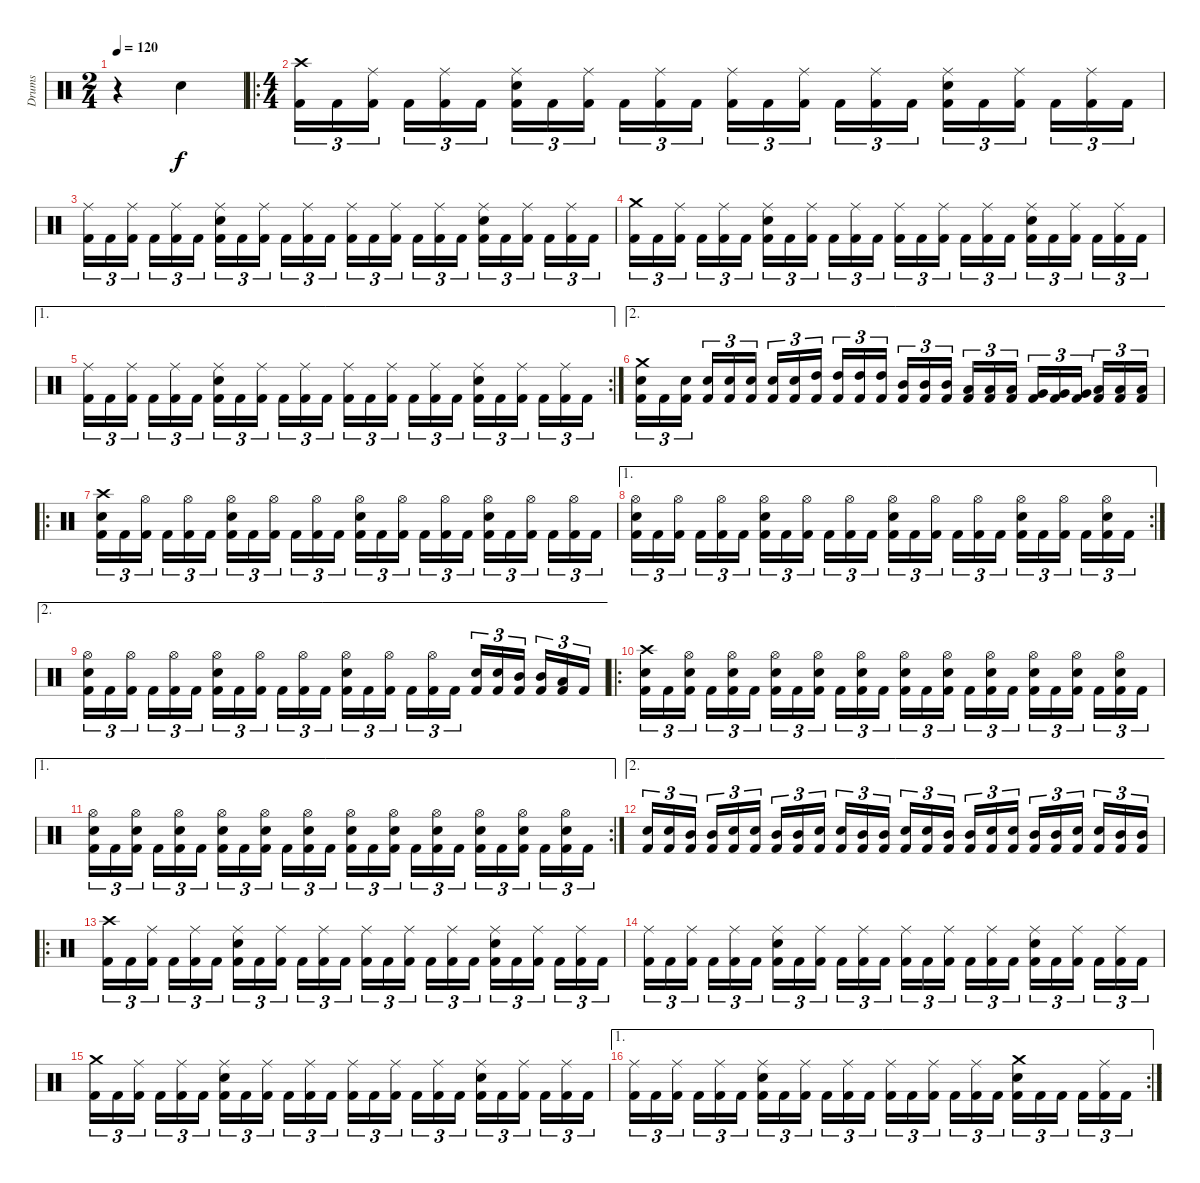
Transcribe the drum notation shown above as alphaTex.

\track ("Drums" "Drums") {instrument percussion}
\staff {score}
\articulation defaults
\ts (2 4)
\tempo 120
\clef neutral
\ks c
r.4{dy f} "Electric Snare (hit)".4 |
\ro
\ts (4 4)
("Crash high (hit)" "Kick (hit) 2").16{tu (3 2)} "Kick (hit) 2".16{tu (3 2)} ("Ride (middle)" "Kick (hit) 2").16{tu (3 2)} "Kick (hit) 2".16{tu (3 2)} ("Ride (middle)" "Kick (hit) 2").16{tu (3 2)} "Kick (hit) 2".16{tu (3 2)} ("Ride (middle)" "Electric Snare (hit)" "Kick (hit) 2").16{tu (3 2)} "Kick (hit) 2".16{tu (3 2)} ("Ride (middle)" "Kick (hit) 2").16{tu (3 2)} "Kick (hit) 2".16{tu (3 2)} ("Ride (middle)" "Kick (hit) 2").16{tu (3 2)} "Kick (hit) 2".16{tu (3 2)} ("Ride (middle)" "Kick (hit) 2").16{tu (3 2)} "Kick (hit) 2".16{tu (3 2)} ("Ride (middle)" "Kick (hit) 2").16{tu (3 2)} "Kick (hit) 2".16{tu (3 2)} ("Ride (middle)" "Kick (hit) 2").16{tu (3 2)} "Kick (hit) 2".16{tu (3 2)} ("Ride (middle)" "Electric Snare (hit)" "Kick (hit) 2").16{tu (3 2)} "Kick (hit) 2".16{tu (3 2)} ("Ride (middle)" "Kick (hit) 2").16{tu (3 2)} "Kick (hit) 2".16{tu (3 2)} ("Ride (middle)" "Kick (hit) 2").16{tu (3 2)} "Kick (hit) 2".16{tu (3 2)} |
("Ride (middle)" "Kick (hit) 2").16{tu (3 2)} "Kick (hit) 2".16{tu (3 2)} ("Ride (middle)" "Kick (hit) 2").16{tu (3 2)} "Kick (hit) 2".16{tu (3 2)} ("Ride (middle)" "Kick (hit) 2").16{tu (3 2)} "Kick (hit) 2".16{tu (3 2)} ("Ride (middle)" "Electric Snare (hit)" "Kick (hit) 2").16{tu (3 2)} "Kick (hit) 2".16{tu (3 2)} ("Ride (middle)" "Kick (hit) 2").16{tu (3 2)} "Kick (hit) 2".16{tu (3 2)} ("Ride (middle)" "Kick (hit) 2").16{tu (3 2)} "Kick (hit) 2".16{tu (3 2)} ("Ride (middle)" "Kick (hit) 2").16{tu (3 2)} "Kick (hit) 2".16{tu (3 2)} ("Ride (middle)" "Kick (hit) 2").16{tu (3 2)} "Kick (hit) 2".16{tu (3 2)} ("Ride (middle)" "Kick (hit) 2").16{tu (3 2)} "Kick (hit) 2".16{tu (3 2)} ("Ride (middle)" "Electric Snare (hit)" "Kick (hit) 2").16{tu (3 2)} "Kick (hit) 2".16{tu (3 2)} ("Ride (middle)" "Kick (hit) 2").16{tu (3 2)} "Kick (hit) 2".16{tu (3 2)} ("Ride (middle)" "Kick (hit) 2").16{tu (3 2)} "Kick (hit) 2".16{tu (3 2)} |
("Crash medium (hit)" "Kick (hit) 2").16{tu (3 2)} "Kick (hit) 2".16{tu (3 2)} ("Ride (middle)" "Kick (hit) 2").16{tu (3 2)} "Kick (hit) 2".16{tu (3 2)} ("Ride (middle)" "Kick (hit) 2").16{tu (3 2)} "Kick (hit) 2".16{tu (3 2)} ("Ride (middle)" "Electric Snare (hit)" "Kick (hit) 2").16{tu (3 2)} "Kick (hit) 2".16{tu (3 2)} ("Ride (middle)" "Kick (hit) 2").16{tu (3 2)} "Kick (hit) 2".16{tu (3 2)} ("Ride (middle)" "Kick (hit) 2").16{tu (3 2)} "Kick (hit) 2".16{tu (3 2)} ("Ride (middle)" "Kick (hit) 2").16{tu (3 2)} "Kick (hit) 2".16{tu (3 2)} ("Ride (middle)" "Kick (hit) 2").16{tu (3 2)} "Kick (hit) 2".16{tu (3 2)} ("Ride (middle)" "Kick (hit) 2").16{tu (3 2)} "Kick (hit) 2".16{tu (3 2)} ("Ride (middle)" "Electric Snare (hit)" "Kick (hit) 2").16{tu (3 2)} "Kick (hit) 2".16{tu (3 2)} ("Ride (middle)" "Kick (hit) 2").16{tu (3 2)} "Kick (hit) 2".16{tu (3 2)} ("Ride (middle)" "Kick (hit) 2").16{tu (3 2)} "Kick (hit) 2".16{tu (3 2)} |
\ae 1
\rc 2
("Ride (middle)" "Kick (hit) 2").16{tu (3 2)} "Kick (hit) 2".16{tu (3 2)} ("Ride (middle)" "Kick (hit) 2").16{tu (3 2)} "Kick (hit) 2".16{tu (3 2)} ("Ride (middle)" "Kick (hit) 2").16{tu (3 2)} "Kick (hit) 2".16{tu (3 2)} ("Ride (middle)" "Electric Snare (hit)" "Kick (hit) 2").16{tu (3 2)} "Kick (hit) 2".16{tu (3 2)} ("Ride (middle)" "Kick (hit) 2").16{tu (3 2)} "Kick (hit) 2".16{tu (3 2)} ("Ride (middle)" "Kick (hit) 2").16{tu (3 2)} "Kick (hit) 2".16{tu (3 2)} ("Ride (middle)" "Kick (hit) 2").16{tu (3 2)} "Kick (hit) 2".16{tu (3 2)} ("Ride (middle)" "Kick (hit) 2").16{tu (3 2)} "Kick (hit) 2".16{tu (3 2)} ("Ride (middle)" "Kick (hit) 2").16{tu (3 2)} "Kick (hit) 2".16{tu (3 2)} ("Ride (middle)" "Electric Snare (hit)" "Kick (hit) 2").16{tu (3 2)} "Kick (hit) 2".16{tu (3 2)} ("Ride (middle)" "Kick (hit) 2").16{tu (3 2)} "Kick (hit) 2".16{tu (3 2)} ("Ride (middle)" "Kick (hit) 2").16{tu (3 2)} "Kick (hit) 2".16{tu (3 2)} |
\ae 2
("Crash medium (hit)" "Electric Snare (hit)" "Kick (hit) 2").16{tu (3 2)} "Kick (hit) 2".16{tu (3 2)} ("Electric Snare (hit)" "Kick (hit) 2").16{tu (3 2)} ("Electric Snare (hit)" "Kick (hit) 2").16{tu (3 2)} ("Electric Snare (hit)" "Kick (hit) 2").16{tu (3 2)} ("Electric Snare (hit)" "Kick (hit) 2").16{tu (3 2)} ("Electric Snare (hit)" "Kick (hit) 2").16{tu (3 2)} ("Electric Snare (hit)" "Kick (hit) 2").16{tu (3 2)} ("High Tom (hit)" "Kick (hit) 2").16{tu (3 2)} ("High Tom (hit)" "Kick (hit) 2").16{tu (3 2)} ("High Tom (hit)" "Kick (hit) 2").16{tu (3 2)} ("High Tom (hit)" "Kick (hit) 2").16{tu (3 2)} ("Mid Tom (hit)" "Kick (hit) 2").16{tu (3 2)} ("Mid Tom (hit)" "Kick (hit) 2").16{tu (3 2)} ("Mid Tom (hit)" "Kick (hit) 2").16{tu (3 2)} ("Low Tom (hit)" "Kick (hit) 2").16{tu (3 2)} ("Low Tom (hit)" "Kick (hit) 2").16{tu (3 2)} ("Low Tom (hit)" "Kick (hit) 2").16{tu (3 2)} ("Very Low Tom (hit)" "Kick (hit) 2").16{tu (3 2)} ("Very Low Tom (hit)" "Kick (hit) 2").16{tu (3 2)} ("Very Low Tom (hit)" "Kick (hit) 2").16{tu (3 2)} ("Low Floor Tom (hit)" "Kick (hit) 2").16{tu (3 2)} ("Low Floor Tom (hit)" "Kick (hit) 2").16{tu (3 2)} ("Low Floor Tom (hit)" "Kick (hit) 2").16{tu (3 2)} |
\ro
("Crash high (hit)" "Electric Snare (hit)" "Kick (hit) 2").16{tu (3 2)} "Kick (hit) 2".16{tu (3 2)} ("Hi-Hat (open)" "Kick (hit) 2").16{tu (3 2)} "Kick (hit) 2".16{tu (3 2)} ("Hi-Hat (open)" "Kick (hit) 2").16{tu (3 2)} "Kick (hit) 2".16{tu (3 2)} ("Hi-Hat (open)" "Electric Snare (hit)" "Kick (hit) 2").16{tu (3 2)} "Kick (hit) 2".16{tu (3 2)} ("Hi-Hat (open)" "Kick (hit) 2").16{tu (3 2)} "Kick (hit) 2".16{tu (3 2)} ("Hi-Hat (open)" "Kick (hit) 2").16{tu (3 2)} "Kick (hit) 2".16{tu (3 2)} ("Hi-Hat (open)" "Electric Snare (hit)" "Kick (hit) 2").16{tu (3 2)} "Kick (hit) 2".16{tu (3 2)} ("Hi-Hat (open)" "Kick (hit) 2").16{tu (3 2)} "Kick (hit) 2".16{tu (3 2)} ("Hi-Hat (open)" "Kick (hit) 2").16{tu (3 2)} "Kick (hit) 2".16{tu (3 2)} ("Hi-Hat (open)" "Electric Snare (hit)" "Kick (hit) 2").16{tu (3 2)} "Kick (hit) 2".16{tu (3 2)} ("Hi-Hat (open)" "Kick (hit) 2").16{tu (3 2)} "Kick (hit) 2".16{tu (3 2)} ("Hi-Hat (open)" "Kick (hit) 2").16{tu (3 2)} "Kick (hit) 2".16{tu (3 2)} |
\ae 1
\rc 2
("Hi-Hat (open)" "Electric Snare (hit)" "Kick (hit) 2").16{tu (3 2)} "Kick (hit) 2".16{tu (3 2)} ("Hi-Hat (open)" "Kick (hit) 2").16{tu (3 2)} "Kick (hit) 2".16{tu (3 2)} ("Hi-Hat (open)" "Kick (hit) 2").16{tu (3 2)} "Kick (hit) 2".16{tu (3 2)} ("Hi-Hat (open)" "Electric Snare (hit)" "Kick (hit) 2").16{tu (3 2)} "Kick (hit) 2".16{tu (3 2)} ("Hi-Hat (open)" "Kick (hit) 2").16{tu (3 2)} "Kick (hit) 2".16{tu (3 2)} ("Hi-Hat (open)" "Kick (hit) 2").16{tu (3 2)} "Kick (hit) 2".16{tu (3 2)} ("Hi-Hat (open)" "Electric Snare (hit)" "Kick (hit) 2").16{tu (3 2)} "Kick (hit) 2".16{tu (3 2)} ("Hi-Hat (open)" "Kick (hit) 2").16{tu (3 2)} "Kick (hit) 2".16{tu (3 2)} ("Hi-Hat (open)" "Kick (hit) 2").16{tu (3 2)} "Kick (hit) 2".16{tu (3 2)} ("Hi-Hat (open)" "Electric Snare (hit)" "Kick (hit) 2").16{tu (3 2)} "Kick (hit) 2".16{tu (3 2)} ("Hi-Hat (open)" "Kick (hit) 2").16{tu (3 2)} "Kick (hit) 2".16{tu (3 2)} ("Hi-Hat (open)" "Electric Snare (hit)" "Kick (hit) 2").16{tu (3 2)} "Kick (hit) 2".16{tu (3 2)} |
\ae 2
("Hi-Hat (open)" "Electric Snare (hit)" "Kick (hit) 2").16{tu (3 2)} "Kick (hit) 2".16{tu (3 2)} ("Hi-Hat (open)" "Kick (hit) 2").16{tu (3 2)} "Kick (hit) 2".16{tu (3 2)} ("Hi-Hat (open)" "Kick (hit) 2").16{tu (3 2)} "Kick (hit) 2".16{tu (3 2)} ("Hi-Hat (open)" "Electric Snare (hit)" "Kick (hit) 2").16{tu (3 2)} "Kick (hit) 2".16{tu (3 2)} ("Hi-Hat (open)" "Kick (hit) 2").16{tu (3 2)} "Kick (hit) 2".16{tu (3 2)} ("Hi-Hat (open)" "Kick (hit) 2").16{tu (3 2)} "Kick (hit) 2".16{tu (3 2)} ("Hi-Hat (open)" "Electric Snare (hit)" "Kick (hit) 2").16{tu (3 2)} "Kick (hit) 2".16{tu (3 2)} ("Hi-Hat (open)" "Kick (hit) 2").16{tu (3 2)} "Kick (hit) 2".16{tu (3 2)} ("Hi-Hat (open)" "Kick (hit) 2").16{tu (3 2)} "Kick (hit) 2".16{tu (3 2)} ("Electric Snare (hit)" "Kick (hit) 2").16{tu (3 2)} ("Electric Snare (hit)" "Kick (hit) 2").16{tu (3 2)} ("Mid Tom (hit)" "Kick (hit) 2").16{tu (3 2)} ("Mid Tom (hit)" "Kick (hit) 2").16{tu (3 2)} ("Low Tom (hit)" "Kick (hit) 2").16{tu (3 2)} "Kick (hit) 2".16{tu (3 2)} |
\ro
("Crash high (hit)" "Electric Snare (hit)" "Kick (hit) 2").16{tu (3 2)} "Kick (hit) 2".16{tu (3 2)} ("Hi-Hat (open)" "Electric Snare (hit)" "Kick (hit) 2").16{tu (3 2)} "Kick (hit) 2".16{tu (3 2)} ("Hi-Hat (open)" "Electric Snare (hit)" "Kick (hit) 2").16{tu (3 2)} "Kick (hit) 2".16{tu (3 2)} ("Hi-Hat (open)" "Electric Snare (hit)" "Kick (hit) 2").16{tu (3 2)} "Kick (hit) 2".16{tu (3 2)} ("Hi-Hat (open)" "Electric Snare (hit)" "Kick (hit) 2").16{tu (3 2)} "Kick (hit) 2".16{tu (3 2)} ("Hi-Hat (open)" "Electric Snare (hit)" "Kick (hit) 2").16{tu (3 2)} "Kick (hit) 2".16{tu (3 2)} ("Hi-Hat (open)" "Electric Snare (hit)" "Kick (hit) 2").16{tu (3 2)} "Kick (hit) 2".16{tu (3 2)} ("Hi-Hat (open)" "Electric Snare (hit)" "Kick (hit) 2").16{tu (3 2)} "Kick (hit) 2".16{tu (3 2)} ("Hi-Hat (open)" "Electric Snare (hit)" "Kick (hit) 2").16{tu (3 2)} "Kick (hit) 2".16{tu (3 2)} ("Hi-Hat (open)" "Electric Snare (hit)" "Kick (hit) 2").16{tu (3 2)} "Kick (hit) 2".16{tu (3 2)} ("Hi-Hat (open)" "Electric Snare (hit)" "Kick (hit) 2").16{tu (3 2)} "Kick (hit) 2".16{tu (3 2)} ("Hi-Hat (open)" "Electric Snare (hit)" "Kick (hit) 2").16{tu (3 2)} "Kick (hit) 2".16{tu (3 2)} |
\ae 1
\rc 2
("Hi-Hat (open)" "Electric Snare (hit)" "Kick (hit) 2").16{tu (3 2)} "Kick (hit) 2".16{tu (3 2)} ("Hi-Hat (open)" "Electric Snare (hit)" "Kick (hit) 2").16{tu (3 2)} "Kick (hit) 2".16{tu (3 2)} ("Hi-Hat (open)" "Electric Snare (hit)" "Kick (hit) 2").16{tu (3 2)} "Kick (hit) 2".16{tu (3 2)} ("Hi-Hat (open)" "Electric Snare (hit)" "Kick (hit) 2").16{tu (3 2)} "Kick (hit) 2".16{tu (3 2)} ("Hi-Hat (open)" "Electric Snare (hit)" "Kick (hit) 2").16{tu (3 2)} "Kick (hit) 2".16{tu (3 2)} ("Hi-Hat (open)" "Electric Snare (hit)" "Kick (hit) 2").16{tu (3 2)} "Kick (hit) 2".16{tu (3 2)} ("Hi-Hat (open)" "Electric Snare (hit)" "Kick (hit) 2").16{tu (3 2)} "Kick (hit) 2".16{tu (3 2)} ("Hi-Hat (open)" "Electric Snare (hit)" "Kick (hit) 2").16{tu (3 2)} "Kick (hit) 2".16{tu (3 2)} ("Hi-Hat (open)" "Electric Snare (hit)" "Kick (hit) 2").16{tu (3 2)} "Kick (hit) 2".16{tu (3 2)} ("Hi-Hat (open)" "Electric Snare (hit)" "Kick (hit) 2").16{tu (3 2)} "Kick (hit) 2".16{tu (3 2)} ("Hi-Hat (open)" "Electric Snare (hit)" "Kick (hit) 2").16{tu (3 2)} "Kick (hit) 2".16{tu (3 2)} ("Hi-Hat (open)" "Electric Snare (hit)" "Kick (hit) 2").16{tu (3 2)} "Kick (hit) 2".16{tu (3 2)} |
\ae 2
("Electric Snare (hit)" "Kick (hit) 2").16{tu (3 2)} ("Electric Snare (hit)" "Kick (hit) 2").16{tu (3 2)} ("Mid Tom (hit)" "Kick (hit) 2").16{tu (3 2)} ("Mid Tom (hit)" "Kick (hit) 2").16{tu (3 2)} ("Electric Snare (hit)" "Kick (hit) 2").16{tu (3 2)} ("Electric Snare (hit)" "Kick (hit) 2").16{tu (3 2)} ("Mid Tom (hit)" "Kick (hit) 2").16{tu (3 2)} ("Mid Tom (hit)" "Kick (hit) 2").16{tu (3 2)} ("Electric Snare (hit)" "Kick (hit) 2").16{tu (3 2)} ("Electric Snare (hit)" "Kick (hit) 2").16{tu (3 2)} ("Mid Tom (hit)" "Kick (hit) 2").16{tu (3 2)} ("Mid Tom (hit)" "Kick (hit) 2").16{tu (3 2)} ("Electric Snare (hit)" "Kick (hit) 2").16{tu (3 2)} ("Electric Snare (hit)" "Kick (hit) 2").16{tu (3 2)} ("Mid Tom (hit)" "Kick (hit) 2").16{tu (3 2)} ("Mid Tom (hit)" "Kick (hit) 2").16{tu (3 2)} ("Electric Snare (hit)" "Kick (hit) 2").16{tu (3 2)} ("Electric Snare (hit)" "Kick (hit) 2").16{tu (3 2)} ("Mid Tom (hit)" "Kick (hit) 2").16{tu (3 2)} ("Mid Tom (hit)" "Kick (hit) 2").16{tu (3 2)} ("Electric Snare (hit)" "Kick (hit) 2").16{tu (3 2)} ("Electric Snare (hit)" "Kick (hit) 2").16{tu (3 2)} ("Mid Tom (hit)" "Kick (hit) 2").16{tu (3 2)} ("Mid Tom (hit)" "Kick (hit) 2").16{tu (3 2)} |
\ro
("Crash high (hit)" "Kick (hit) 2").16{tu (3 2)} "Kick (hit) 2".16{tu (3 2)} ("Ride (middle)" "Kick (hit) 2").16{tu (3 2)} "Kick (hit) 2".16{tu (3 2)} ("Ride (middle)" "Kick (hit) 2").16{tu (3 2)} "Kick (hit) 2".16{tu (3 2)} ("Ride (middle)" "Electric Snare (hit)" "Kick (hit) 2").16{tu (3 2)} "Kick (hit) 2".16{tu (3 2)} ("Ride (middle)" "Kick (hit) 2").16{tu (3 2)} "Kick (hit) 2".16{tu (3 2)} ("Ride (middle)" "Kick (hit) 2").16{tu (3 2)} "Kick (hit) 2".16{tu (3 2)} ("Ride (middle)" "Kick (hit) 2").16{tu (3 2)} "Kick (hit) 2".16{tu (3 2)} ("Ride (middle)" "Kick (hit) 2").16{tu (3 2)} "Kick (hit) 2".16{tu (3 2)} ("Ride (middle)" "Kick (hit) 2").16{tu (3 2)} "Kick (hit) 2".16{tu (3 2)} ("Ride (middle)" "Electric Snare (hit)" "Kick (hit) 2").16{tu (3 2)} "Kick (hit) 2".16{tu (3 2)} ("Ride (middle)" "Kick (hit) 2").16{tu (3 2)} "Kick (hit) 2".16{tu (3 2)} ("Ride (middle)" "Kick (hit) 2").16{tu (3 2)} "Kick (hit) 2".16{tu (3 2)} |
("Ride (middle)" "Kick (hit) 2").16{tu (3 2)} "Kick (hit) 2".16{tu (3 2)} ("Ride (middle)" "Kick (hit) 2").16{tu (3 2)} "Kick (hit) 2".16{tu (3 2)} ("Ride (middle)" "Kick (hit) 2").16{tu (3 2)} "Kick (hit) 2".16{tu (3 2)} ("Ride (middle)" "Electric Snare (hit)" "Kick (hit) 2").16{tu (3 2)} "Kick (hit) 2".16{tu (3 2)} ("Ride (middle)" "Kick (hit) 2").16{tu (3 2)} "Kick (hit) 2".16{tu (3 2)} ("Ride (middle)" "Kick (hit) 2").16{tu (3 2)} "Kick (hit) 2".16{tu (3 2)} ("Ride (middle)" "Kick (hit) 2").16{tu (3 2)} "Kick (hit) 2".16{tu (3 2)} ("Ride (middle)" "Kick (hit) 2").16{tu (3 2)} "Kick (hit) 2".16{tu (3 2)} ("Ride (middle)" "Kick (hit) 2").16{tu (3 2)} "Kick (hit) 2".16{tu (3 2)} ("Ride (middle)" "Electric Snare (hit)" "Kick (hit) 2").16{tu (3 2)} "Kick (hit) 2".16{tu (3 2)} ("Ride (middle)" "Kick (hit) 2").16{tu (3 2)} "Kick (hit) 2".16{tu (3 2)} ("Ride (middle)" "Kick (hit) 2").16{tu (3 2)} "Kick (hit) 2".16{tu (3 2)} |
("Crash medium (hit)" "Kick (hit) 2").16{tu (3 2)} "Kick (hit) 2".16{tu (3 2)} ("Ride (middle)" "Kick (hit) 2").16{tu (3 2)} "Kick (hit) 2".16{tu (3 2)} ("Ride (middle)" "Kick (hit) 2").16{tu (3 2)} "Kick (hit) 2".16{tu (3 2)} ("Ride (middle)" "Electric Snare (hit)" "Kick (hit) 2").16{tu (3 2)} "Kick (hit) 2".16{tu (3 2)} ("Ride (middle)" "Kick (hit) 2").16{tu (3 2)} "Kick (hit) 2".16{tu (3 2)} ("Ride (middle)" "Kick (hit) 2").16{tu (3 2)} "Kick (hit) 2".16{tu (3 2)} ("Ride (middle)" "Kick (hit) 2").16{tu (3 2)} "Kick (hit) 2".16{tu (3 2)} ("Ride (middle)" "Kick (hit) 2").16{tu (3 2)} "Kick (hit) 2".16{tu (3 2)} ("Ride (middle)" "Kick (hit) 2").16{tu (3 2)} "Kick (hit) 2".16{tu (3 2)} ("Ride (middle)" "Electric Snare (hit)" "Kick (hit) 2").16{tu (3 2)} "Kick (hit) 2".16{tu (3 2)} ("Ride (middle)" "Kick (hit) 2").16{tu (3 2)} "Kick (hit) 2".16{tu (3 2)} ("Ride (middle)" "Kick (hit) 2").16{tu (3 2)} "Kick (hit) 2".16{tu (3 2)} |
\ae 1
\rc 2
("Ride (middle)" "Kick (hit) 2").16{tu (3 2)} "Kick (hit) 2".16{tu (3 2)} ("Ride (middle)" "Kick (hit) 2").16{tu (3 2)} "Kick (hit) 2".16{tu (3 2)} ("Ride (middle)" "Kick (hit) 2").16{tu (3 2)} "Kick (hit) 2".16{tu (3 2)} ("Ride (middle)" "Electric Snare (hit)" "Kick (hit) 2").16{tu (3 2)} "Kick (hit) 2".16{tu (3 2)} ("Ride (middle)" "Kick (hit) 2").16{tu (3 2)} "Kick (hit) 2".16{tu (3 2)} ("Ride (middle)" "Kick (hit) 2").16{tu (3 2)} "Kick (hit) 2".16{tu (3 2)} ("Ride (middle)" "Kick (hit) 2").16{tu (3 2)} "Kick (hit) 2".16{tu (3 2)} ("Ride (middle)" "Kick (hit) 2").16{tu (3 2)} "Kick (hit) 2".16{tu (3 2)} ("Ride (middle)" "Kick (hit) 2").16{tu (3 2)} "Kick (hit) 2".16{tu (3 2)} ("Crash medium (hit)" "Electric Snare (hit)" "Kick (hit) 2").16{tu (3 2)} "Kick (hit) 2".16{tu (3 2)} "Kick (hit) 2".16{tu (3 2)} "Kick (hit) 2".16{tu (3 2)} ("Ride (middle)" "Kick (hit) 2").16{tu (3 2)} "Kick (hit) 2".16{tu (3 2)}
